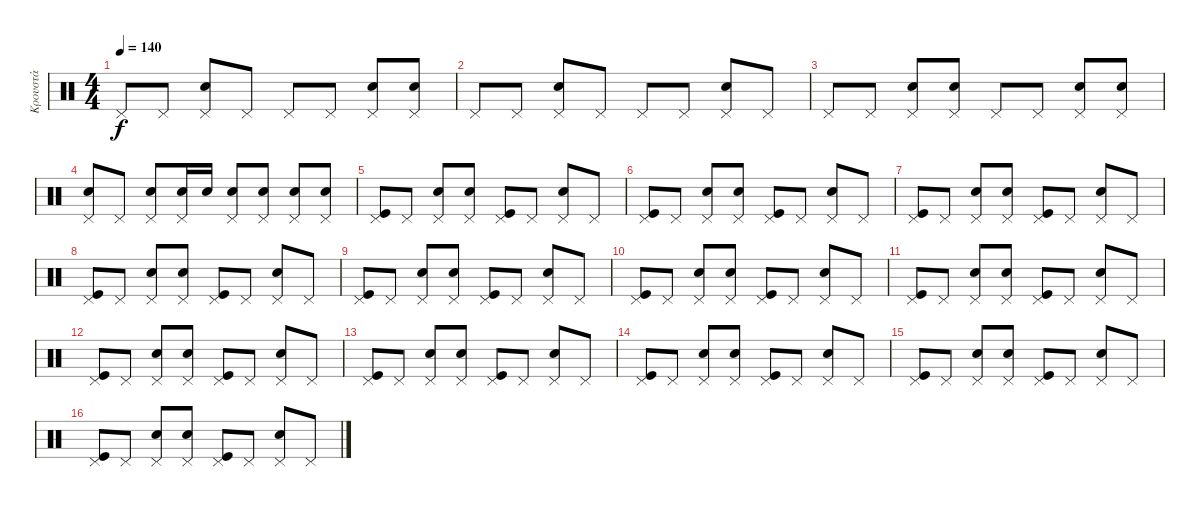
\track ("Κρουστά" "Κρουστά") {instrument percussion}
\staff {score}
\articulation defaults
\ts (4 4)
\tempo 140
\clef neutral
\ks c "Pedal Hi-Hat (hit)".8{dy f} "Pedal Hi-Hat (hit)".8
("Pedal Hi-Hat (hit)" "Snare (hit) 2").8 "Pedal Hi-Hat (hit)".8 "Pedal Hi-Hat (hit)".8 "Pedal Hi-Hat (hit)".8 ("Pedal Hi-Hat (hit)" "Snare (hit) 2").8 ("Pedal Hi-Hat (hit)" "Snare (hit) 2").8 |
"Pedal Hi-Hat (hit)".8 "Pedal Hi-Hat (hit)".8 ("Pedal Hi-Hat (hit)" "Snare (hit) 2").8 "Pedal Hi-Hat (hit)".8 "Pedal Hi-Hat (hit)".8 "Pedal Hi-Hat (hit)".8 ("Pedal Hi-Hat (hit)" "Snare (hit) 2").8 "Pedal Hi-Hat (hit)".8 |
"Pedal Hi-Hat (hit)".8 "Pedal Hi-Hat (hit)".8 ("Pedal Hi-Hat (hit)" "Snare (hit) 2").8 ("Pedal Hi-Hat (hit)" "Snare (hit) 2").8 "Pedal Hi-Hat (hit)".8 "Pedal Hi-Hat (hit)".8 ("Pedal Hi-Hat (hit)" "Snare (hit) 2").8 ("Pedal Hi-Hat (hit)" "Snare (hit) 2").8 |
("Pedal Hi-Hat (hit)" "Snare (hit) 2").8 "Pedal Hi-Hat (hit)".8 ("Pedal Hi-Hat (hit)" "Snare (hit) 2").8 ("Pedal Hi-Hat (hit)" "Snare (hit) 2").16 "Snare (hit) 2".16 ("Pedal Hi-Hat (hit)" "Snare (hit) 2").8 ("Pedal Hi-Hat (hit)" "Snare (hit) 2").8 ("Pedal Hi-Hat (hit)" "Snare (hit) 2").8 ("Pedal Hi-Hat (hit)" "Snare (hit) 2").8 |
("Pedal Hi-Hat (hit)" "Kick (hit)").8 "Pedal Hi-Hat (hit)".8 ("Pedal Hi-Hat (hit)" "Snare (hit) 2").8 ("Pedal Hi-Hat (hit)" "Snare (hit) 2").8 ("Pedal Hi-Hat (hit)" "Kick (hit)").8 "Pedal Hi-Hat (hit)".8 ("Pedal Hi-Hat (hit)" "Snare (hit) 2").8 "Pedal Hi-Hat (hit)".8 |
("Pedal Hi-Hat (hit)" "Kick (hit)").8 "Pedal Hi-Hat (hit)".8 ("Pedal Hi-Hat (hit)" "Snare (hit) 2").8 ("Pedal Hi-Hat (hit)" "Snare (hit) 2").8 ("Pedal Hi-Hat (hit)" "Kick (hit)").8 "Pedal Hi-Hat (hit)".8 ("Pedal Hi-Hat (hit)" "Snare (hit) 2").8 "Pedal Hi-Hat (hit)".8 |
("Pedal Hi-Hat (hit)" "Kick (hit)").8 "Pedal Hi-Hat (hit)".8 ("Pedal Hi-Hat (hit)" "Snare (hit) 2").8 ("Pedal Hi-Hat (hit)" "Snare (hit) 2").8 ("Pedal Hi-Hat (hit)" "Kick (hit)").8 "Pedal Hi-Hat (hit)".8 ("Pedal Hi-Hat (hit)" "Snare (hit) 2").8 "Pedal Hi-Hat (hit)".8 |
("Pedal Hi-Hat (hit)" "Kick (hit)").8 "Pedal Hi-Hat (hit)".8 ("Pedal Hi-Hat (hit)" "Snare (hit) 2").8 ("Pedal Hi-Hat (hit)" "Snare (hit) 2").8 ("Pedal Hi-Hat (hit)" "Kick (hit)").8 "Pedal Hi-Hat (hit)".8 ("Pedal Hi-Hat (hit)" "Snare (hit) 2").8 "Pedal Hi-Hat (hit)".8 |
("Pedal Hi-Hat (hit)" "Kick (hit)").8 "Pedal Hi-Hat (hit)".8 ("Pedal Hi-Hat (hit)" "Snare (hit) 2").8 ("Pedal Hi-Hat (hit)" "Snare (hit) 2").8 ("Pedal Hi-Hat (hit)" "Kick (hit)").8 "Pedal Hi-Hat (hit)".8 ("Pedal Hi-Hat (hit)" "Snare (hit) 2").8 "Pedal Hi-Hat (hit)".8 |
("Pedal Hi-Hat (hit)" "Kick (hit)").8 "Pedal Hi-Hat (hit)".8 ("Pedal Hi-Hat (hit)" "Snare (hit) 2").8 ("Pedal Hi-Hat (hit)" "Snare (hit) 2").8 ("Pedal Hi-Hat (hit)" "Kick (hit)").8 "Pedal Hi-Hat (hit)".8 ("Pedal Hi-Hat (hit)" "Snare (hit) 2").8 "Pedal Hi-Hat (hit)".8 |
("Pedal Hi-Hat (hit)" "Kick (hit)").8 "Pedal Hi-Hat (hit)".8 ("Pedal Hi-Hat (hit)" "Snare (hit) 2").8 ("Pedal Hi-Hat (hit)" "Snare (hit) 2").8 ("Pedal Hi-Hat (hit)" "Kick (hit)").8 "Pedal Hi-Hat (hit)".8 ("Pedal Hi-Hat (hit)" "Snare (hit) 2").8 "Pedal Hi-Hat (hit)".8 |
("Pedal Hi-Hat (hit)" "Kick (hit)").8 "Pedal Hi-Hat (hit)".8 ("Pedal Hi-Hat (hit)" "Snare (hit) 2").8 ("Pedal Hi-Hat (hit)" "Snare (hit) 2").8 ("Pedal Hi-Hat (hit)" "Kick (hit)").8 "Pedal Hi-Hat (hit)".8 ("Pedal Hi-Hat (hit)" "Snare (hit) 2").8 "Pedal Hi-Hat (hit)".8 |
("Pedal Hi-Hat (hit)" "Kick (hit)").8 "Pedal Hi-Hat (hit)".8 ("Pedal Hi-Hat (hit)" "Snare (hit) 2").8 ("Pedal Hi-Hat (hit)" "Snare (hit) 2").8 ("Pedal Hi-Hat (hit)" "Kick (hit)").8 "Pedal Hi-Hat (hit)".8 ("Pedal Hi-Hat (hit)" "Snare (hit) 2").8 "Pedal Hi-Hat (hit)".8 |
("Pedal Hi-Hat (hit)" "Kick (hit)").8 "Pedal Hi-Hat (hit)".8 ("Pedal Hi-Hat (hit)" "Snare (hit) 2").8 ("Pedal Hi-Hat (hit)" "Snare (hit) 2").8 ("Pedal Hi-Hat (hit)" "Kick (hit)").8 "Pedal Hi-Hat (hit)".8 ("Pedal Hi-Hat (hit)" "Snare (hit) 2").8 "Pedal Hi-Hat (hit)".8 |
("Pedal Hi-Hat (hit)" "Kick (hit)").8 "Pedal Hi-Hat (hit)".8 ("Pedal Hi-Hat (hit)" "Snare (hit) 2").8 ("Pedal Hi-Hat (hit)" "Snare (hit) 2").8 ("Pedal Hi-Hat (hit)" "Kick (hit)").8 "Pedal Hi-Hat (hit)".8 ("Pedal Hi-Hat (hit)" "Snare (hit) 2").8 "Pedal Hi-Hat (hit)".8 |
("Pedal Hi-Hat (hit)" "Kick (hit)").8 "Pedal Hi-Hat (hit)".8 ("Pedal Hi-Hat (hit)" "Snare (hit) 2").8 ("Pedal Hi-Hat (hit)" "Snare (hit) 2").8 ("Pedal Hi-Hat (hit)" "Kick (hit)").8 "Pedal Hi-Hat (hit)".8 ("Pedal Hi-Hat (hit)" "Snare (hit) 2").8 "Pedal Hi-Hat (hit)".8
